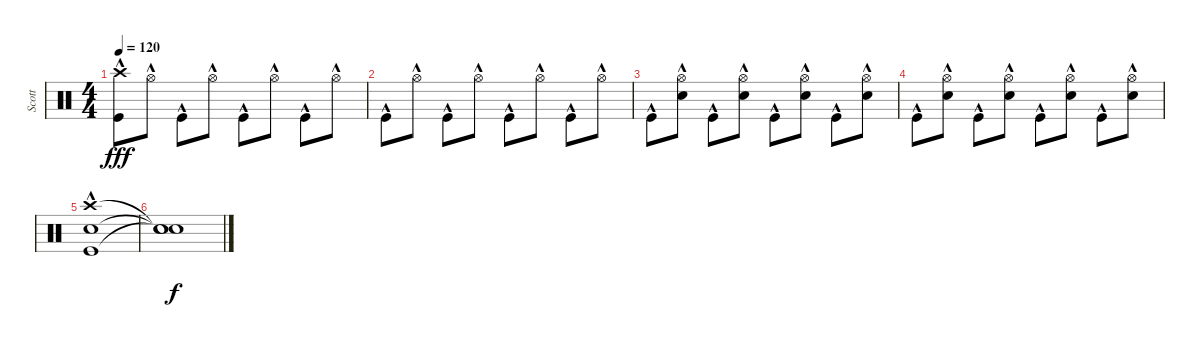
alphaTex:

\track ("Scott" "Scott") {instrument percussion}
\staff {score}
\articulation defaults
\ts (4 4)
\tempo 120
\clef neutral
\ks c
("Crash high (hit)"{hac} "Kick (hit)"{hac}).8{dy fff} "Hi-Hat (open)"{hac}.8 "Kick (hit)"{hac}.8 "Hi-Hat (open)"{hac}.8 "Kick (hit)"{hac}.8 "Hi-Hat (open)"{hac}.8 "Kick (hit)"{hac}.8 "Hi-Hat (open)"{hac}.8 |
"Kick (hit)"{hac}.8 "Hi-Hat (open)"{hac}.8 "Kick (hit)"{hac}.8 "Hi-Hat (open)"{hac}.8 "Kick (hit)"{hac}.8 "Hi-Hat (open)"{hac}.8 "Kick (hit)"{hac}.8 "Hi-Hat (open)"{hac}.8 |
"Kick (hit)"{hac}.8 ("Hi-Hat (open)"{hac} "Electric Snare (hit)").8 "Kick (hit)"{hac}.8 ("Hi-Hat (open)"{hac} "Electric Snare (hit)").8 "Kick (hit)"{hac}.8 ("Hi-Hat (open)"{hac} "Electric Snare (hit)").8 "Kick (hit)"{hac}.8 ("Hi-Hat (open)"{hac} "Electric Snare (hit)").8 |
"Kick (hit)"{hac}.8 ("Hi-Hat (open)"{hac} "Electric Snare (hit)").8 "Kick (hit)"{hac}.8 ("Hi-Hat (open)"{hac} "Electric Snare (hit)").8 "Kick (hit)"{hac}.8 ("Hi-Hat (open)"{hac} "Electric Snare (hit)").8 "Kick (hit)"{hac}.8 ("Hi-Hat (open)"{hac} "Electric Snare (hit)").8 |
("Crash high (hit)"{hac} "Electric Snare (hit)"{hac} "Kick (hit)"{hac}).1 |
("Snare (hit)"{t} "Snare (hit)"{t} "Snare (hit)"{t}).1{dy f}
